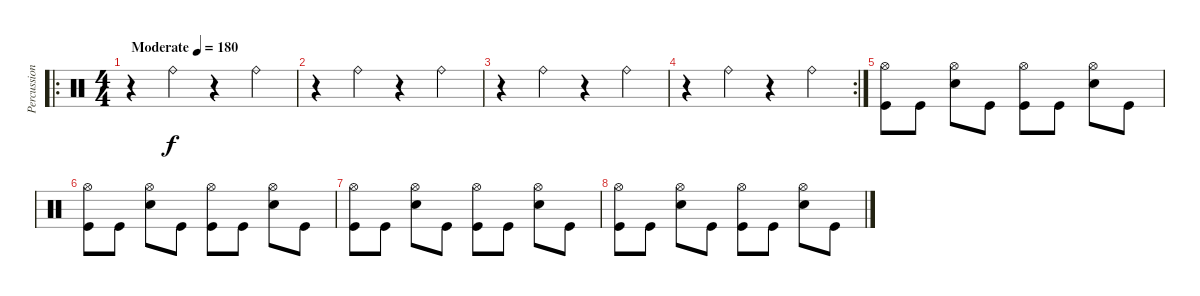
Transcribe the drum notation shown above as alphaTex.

\track ("Percussion" "Percussion") {instrument percussion}
\staff {score}
\articulation defaults
\ro
\ts (4 4)
\tempo (180 "Moderate")
\clef neutral
\ks c
r.4{dy f} "Ride (bell)".4 r.4 "Ride (bell)".4 |
r.4 "Ride (bell)".4 r.4 "Ride (bell)".4 |
r.4 "Ride (bell)".4 r.4 "Ride (bell)".4 |
\rc 2
r.4 "Ride (bell)".4 r.4 "Ride (bell)".4 |
("Hi-Hat (open)" "Kick (hit)").8 "Kick (hit)".8 ("Hi-Hat (open)" "Snare (hit) 2").8 "Kick (hit)".8 ("Hi-Hat (open)" "Kick (hit)").8 "Kick (hit)".8 ("Hi-Hat (open)" "Snare (hit) 2").8 "Kick (hit)".8 |
("Hi-Hat (open)" "Kick (hit)").8 "Kick (hit)".8 ("Hi-Hat (open)" "Snare (hit) 2").8 "Kick (hit)".8 ("Hi-Hat (open)" "Kick (hit)").8 "Kick (hit)".8 ("Hi-Hat (open)" "Snare (hit) 2").8 "Kick (hit)".8 |
("Hi-Hat (open)" "Kick (hit)").8 "Kick (hit)".8 ("Hi-Hat (open)" "Snare (hit) 2").8 "Kick (hit)".8 ("Hi-Hat (open)" "Kick (hit)").8 "Kick (hit)".8 ("Hi-Hat (open)" "Snare (hit) 2").8 "Kick (hit)".8 |
("Hi-Hat (open)" "Kick (hit)").8 "Kick (hit)".8 ("Hi-Hat (open)" "Snare (hit) 2").8 "Kick (hit)".8 ("Hi-Hat (open)" "Kick (hit)").8 "Kick (hit)".8 ("Hi-Hat (open)" "Snare (hit) 2").8 "Kick (hit)".8
